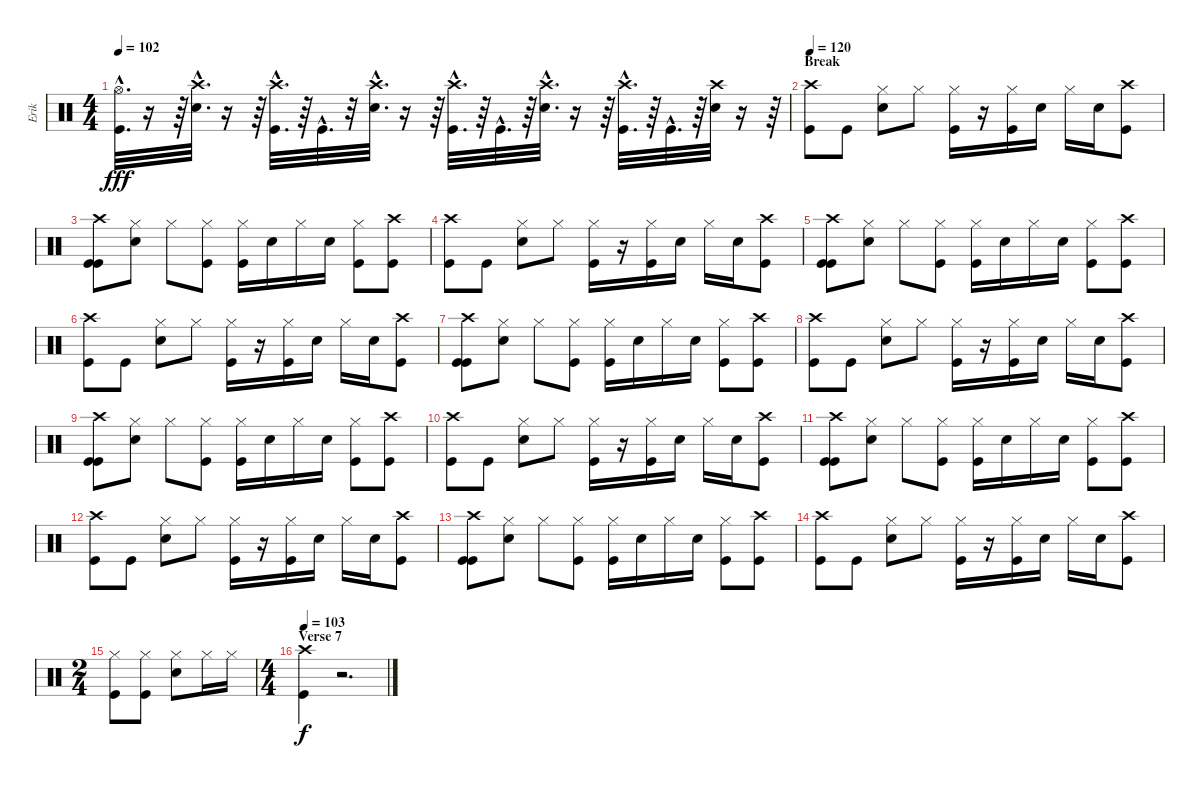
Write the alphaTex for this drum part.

\track ("Erik" "Erik") {instrument percussion}
\staff {score}
\articulation defaults
\ts (4 4)
\tempo 102
\clef neutral
\ks c
("Hi-Hat (open)"{hac} "Kick (hit)"{hac}).32{d dy fff} r.16 r.64 ("Crash high (hit)"{hac} "Electric Snare (hit)"{hac}).32{d} r.16 r.64 ("Kick (hit)"{hac} "Crash high (hit)"{hac}).32{d} r.64 "Kick (hit)"{hac}.32{d} r.32 ("Crash high (hit)"{hac} "Electric Snare (hit)"{hac}).32{d} r.16 r.64 ("Crash high (hit)"{hac} "Kick (hit)"{hac}).32{d} r.64 "Kick (hit)"{hac}.32{d} r.64 ("Crash high (hit)"{hac} "Electric Snare (hit)"{hac}).32{d} r.16 r.64 ("Kick (hit)"{hac} "Crash high (hit)"{hac}).32{d} r.64 "Kick (hit)"{hac}.32{d} r.64 ("Electric Snare (hit)" "Crash high (hit)").32 r.16 r.64 |
\section ("" "Break")
\tempo 120
("Crash high (hit)" "Kick (hit)").8 "Kick (hit)".8 ("Electric Snare (hit)" "Hi-Hat (closed)").8 "Hi-Hat (closed)".8 ("Kick (hit)" "Hi-Hat (closed)").16 r.16 ("Kick (hit)" "Hi-Hat (closed)").16 "Electric Snare (hit)".16 "Hi-Hat (closed)".16 "Electric Snare (hit)".16 ("Crash high (hit)" "Kick (hit)").8 |
("Kick (hit)" "Kick (hit)" "Crash high (hit)").8 ("Hi-Hat (closed)" "Electric Snare (hit)").8 "Hi-Hat (closed)".8 ("Hi-Hat (closed)" "Kick (hit)").8 ("Hi-Hat (closed)" "Kick (hit)").16 "Electric Snare (hit)".16 "Hi-Hat (closed)".16 "Electric Snare (hit)".16 ("Hi-Hat (closed)" "Kick (hit)").8 ("Crash high (hit)" "Kick (hit)").8 |
("Crash high (hit)" "Kick (hit)").8 "Kick (hit)".8 ("Electric Snare (hit)" "Hi-Hat (closed)").8 "Hi-Hat (closed)".8 ("Kick (hit)" "Hi-Hat (closed)").16 r.16 ("Kick (hit)" "Hi-Hat (closed)").16 "Electric Snare (hit)".16 "Hi-Hat (closed)".16 "Electric Snare (hit)".16 ("Crash high (hit)" "Kick (hit)").8 |
("Kick (hit)" "Kick (hit)" "Crash high (hit)").8 ("Hi-Hat (closed)" "Electric Snare (hit)").8 "Hi-Hat (closed)".8 ("Hi-Hat (closed)" "Kick (hit)").8 ("Hi-Hat (closed)" "Kick (hit)").16 "Electric Snare (hit)".16 "Hi-Hat (closed)".16 "Electric Snare (hit)".16 ("Hi-Hat (closed)" "Kick (hit)").8 ("Crash high (hit)" "Kick (hit)").8 |
("Crash high (hit)" "Kick (hit)").8 "Kick (hit)".8 ("Electric Snare (hit)" "Hi-Hat (closed)").8 "Hi-Hat (closed)".8 ("Kick (hit)" "Hi-Hat (closed)").16 r.16 ("Kick (hit)" "Hi-Hat (closed)").16 "Electric Snare (hit)".16 "Hi-Hat (closed)".16 "Electric Snare (hit)".16 ("Crash high (hit)" "Kick (hit)").8 |
("Kick (hit)" "Kick (hit)" "Crash high (hit)").8 ("Hi-Hat (closed)" "Electric Snare (hit)").8 "Hi-Hat (closed)".8 ("Hi-Hat (closed)" "Kick (hit)").8 ("Hi-Hat (closed)" "Kick (hit)").16 "Electric Snare (hit)".16 "Hi-Hat (closed)".16 "Electric Snare (hit)".16 ("Hi-Hat (closed)" "Kick (hit)").8 ("Crash high (hit)" "Kick (hit)").8 |
("Crash high (hit)" "Kick (hit)").8 "Kick (hit)".8 ("Electric Snare (hit)" "Hi-Hat (closed)").8 "Hi-Hat (closed)".8 ("Kick (hit)" "Hi-Hat (closed)").16 r.16 ("Kick (hit)" "Hi-Hat (closed)").16 "Electric Snare (hit)".16 "Hi-Hat (closed)".16 "Electric Snare (hit)".16 ("Crash high (hit)" "Kick (hit)").8 |
("Kick (hit)" "Kick (hit)" "Crash high (hit)").8 ("Hi-Hat (closed)" "Electric Snare (hit)").8 "Hi-Hat (closed)".8 ("Hi-Hat (closed)" "Kick (hit)").8 ("Hi-Hat (closed)" "Kick (hit)").16 "Electric Snare (hit)".16 "Hi-Hat (closed)".16 "Electric Snare (hit)".16 ("Hi-Hat (closed)" "Kick (hit)").8 ("Crash high (hit)" "Kick (hit)").8 |
("Crash high (hit)" "Kick (hit)").8 "Kick (hit)".8 ("Electric Snare (hit)" "Hi-Hat (closed)").8 "Hi-Hat (closed)".8 ("Kick (hit)" "Hi-Hat (closed)").16 r.16 ("Kick (hit)" "Hi-Hat (closed)").16 "Electric Snare (hit)".16 "Hi-Hat (closed)".16 "Electric Snare (hit)".16 ("Crash high (hit)" "Kick (hit)").8 |
("Kick (hit)" "Kick (hit)" "Crash high (hit)").8 ("Hi-Hat (closed)" "Electric Snare (hit)").8 "Hi-Hat (closed)".8 ("Hi-Hat (closed)" "Kick (hit)").8 ("Hi-Hat (closed)" "Kick (hit)").16 "Electric Snare (hit)".16 "Hi-Hat (closed)".16 "Electric Snare (hit)".16 ("Hi-Hat (closed)" "Kick (hit)").8 ("Crash high (hit)" "Kick (hit)").8 |
("Crash high (hit)" "Kick (hit)").8 "Kick (hit)".8 ("Electric Snare (hit)" "Hi-Hat (closed)").8 "Hi-Hat (closed)".8 ("Kick (hit)" "Hi-Hat (closed)").16 r.16 ("Kick (hit)" "Hi-Hat (closed)").16 "Electric Snare (hit)".16 "Hi-Hat (closed)".16 "Electric Snare (hit)".16 ("Crash high (hit)" "Kick (hit)").8 |
("Kick (hit)" "Kick (hit)" "Crash high (hit)").8 ("Hi-Hat (closed)" "Electric Snare (hit)").8 "Hi-Hat (closed)".8 ("Hi-Hat (closed)" "Kick (hit)").8 ("Hi-Hat (closed)" "Kick (hit)").16 "Electric Snare (hit)".16 "Hi-Hat (closed)".16 "Electric Snare (hit)".16 ("Hi-Hat (closed)" "Kick (hit)").8 ("Crash high (hit)" "Kick (hit)").8 |
("Crash high (hit)" "Kick (hit)").8 "Kick (hit)".8 ("Electric Snare (hit)" "Hi-Hat (closed)").8 "Hi-Hat (closed)".8 ("Kick (hit)" "Hi-Hat (closed)").16 r.16 ("Kick (hit)" "Hi-Hat (closed)").16 "Electric Snare (hit)".16 "Hi-Hat (closed)".16 "Electric Snare (hit)".16 ("Crash high (hit)" "Kick (hit)").8 |
\ts (2 4)
("Kick (hit)" "Hi-Hat (closed)").8 ("Hi-Hat (closed)" "Kick (hit)").8 ("Hi-Hat (closed)" "Electric Snare (hit)").8 "Hi-Hat (closed)".16 "Hi-Hat (closed)".16 |
\ts (4 4)
\section ("" "Verse 7")
\tempo 103
("Kick (hit)" "Crash high (hit)").4{dy f} r.2{d}
